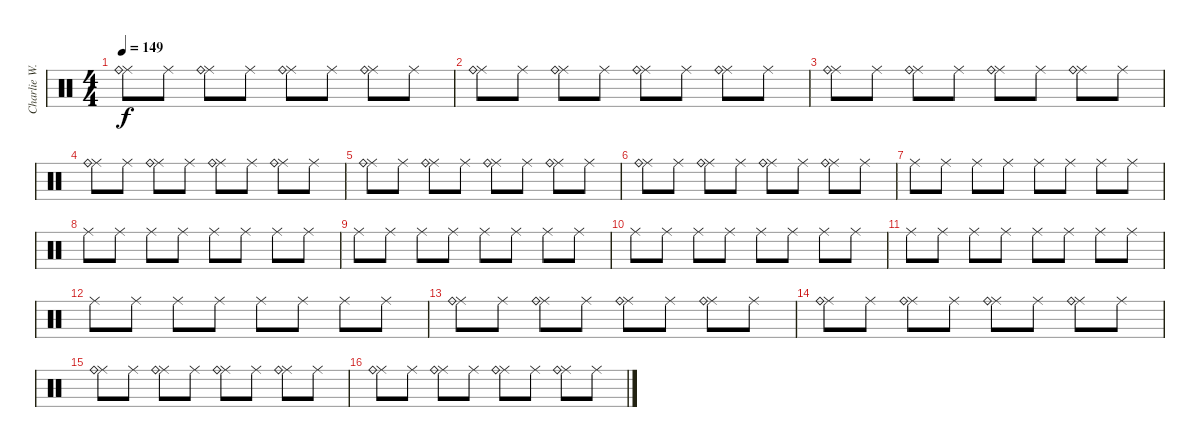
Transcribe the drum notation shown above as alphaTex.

\track ("Charlie W. drums" "Charlie W.") {instrument percussion}
\staff {score}
\articulation defaults
\ts (4 4)
\tempo 149
\clef neutral
\ks c
("Ride (middle)" "Ride (bell)").8{dy f} "Ride (middle)".8 ("Ride (middle)" "Ride (bell)").8 "Ride (middle)".8 ("Ride (middle)" "Ride (bell)").8 "Ride (middle)".8 ("Ride (middle)" "Ride (bell)").8 "Ride (middle)".8 |
("Ride (middle)" "Ride (bell)").8 "Ride (middle)".8 ("Ride (middle)" "Ride (bell)").8 "Ride (middle)".8 ("Ride (middle)" "Ride (bell)").8 "Ride (middle)".8 ("Ride (middle)" "Ride (bell)").8 "Ride (middle)".8 |
("Ride (middle)" "Ride (bell)").8 "Ride (middle)".8 ("Ride (middle)" "Ride (bell)").8 "Ride (middle)".8 ("Ride (middle)" "Ride (bell)").8 "Ride (middle)".8 ("Ride (middle)" "Ride (bell)").8 "Ride (middle)".8 |
("Ride (middle)" "Ride (bell)").8 "Ride (middle)".8 ("Ride (middle)" "Ride (bell)").8 "Ride (middle)".8 ("Ride (middle)" "Ride (bell)").8 "Ride (middle)".8 ("Ride (middle)" "Ride (bell)").8 "Ride (middle)".8 |
("Ride (middle)" "Ride (bell)").8 "Ride (middle)".8 ("Ride (middle)" "Ride (bell)").8 "Ride (middle)".8 ("Ride (middle)" "Ride (bell)").8 "Ride (middle)".8 ("Ride (middle)" "Ride (bell)").8 "Ride (middle)".8 |
("Ride (middle)" "Ride (bell)").8 "Ride (middle)".8 ("Ride (middle)" "Ride (bell)").8 "Ride (middle)".8 ("Ride (middle)" "Ride (bell)").8 "Ride (middle)".8 ("Ride (middle)" "Ride (bell)").8 "Ride (middle)".8 |
"Ride (middle)".8 "Ride (middle)".8 "Ride (middle)".8 "Ride (middle)".8 "Ride (middle)".8 "Ride (middle)".8 "Ride (middle)".8 "Ride (middle)".8 |
"Ride (middle)".8 "Ride (middle)".8 "Ride (middle)".8 "Ride (middle)".8 "Ride (middle)".8 "Ride (middle)".8 "Ride (middle)".8 "Ride (middle)".8 |
"Ride (middle)".8 "Ride (middle)".8 "Ride (middle)".8 "Ride (middle)".8 "Ride (middle)".8 "Ride (middle)".8 "Ride (middle)".8 "Ride (middle)".8 |
"Ride (middle)".8 "Ride (middle)".8 "Ride (middle)".8 "Ride (middle)".8 "Ride (middle)".8 "Ride (middle)".8 "Ride (middle)".8 "Ride (middle)".8 |
"Ride (middle)".8 "Ride (middle)".8 "Ride (middle)".8 "Ride (middle)".8 "Ride (middle)".8 "Ride (middle)".8 "Ride (middle)".8 "Ride (middle)".8 |
"Ride (middle)".8 "Ride (middle)".8 "Ride (middle)".8 "Ride (middle)".8 "Ride (middle)".8 "Ride (middle)".8 "Ride (middle)".8 "Ride (middle)".8 |
("Ride (middle)" "Ride (bell)").8 "Ride (middle)".8 ("Ride (middle)" "Ride (bell)").8 "Ride (middle)".8 ("Ride (middle)" "Ride (bell)").8 "Ride (middle)".8 ("Ride (middle)" "Ride (bell)").8 "Ride (middle)".8 |
("Ride (middle)" "Ride (bell)").8 "Ride (middle)".8 ("Ride (middle)" "Ride (bell)").8 "Ride (middle)".8 ("Ride (middle)" "Ride (bell)").8 "Ride (middle)".8 ("Ride (middle)" "Ride (bell)").8 "Ride (middle)".8 |
("Ride (middle)" "Ride (bell)").8 "Ride (middle)".8 ("Ride (middle)" "Ride (bell)").8 "Ride (middle)".8 ("Ride (middle)" "Ride (bell)").8 "Ride (middle)".8 ("Ride (middle)" "Ride (bell)").8 "Ride (middle)".8 |
("Ride (middle)" "Ride (bell)").8 "Ride (middle)".8 ("Ride (middle)" "Ride (bell)").8 "Ride (middle)".8 ("Ride (middle)" "Ride (bell)").8 "Ride (middle)".8 ("Ride (middle)" "Ride (bell)").8 "Ride (middle)".8
